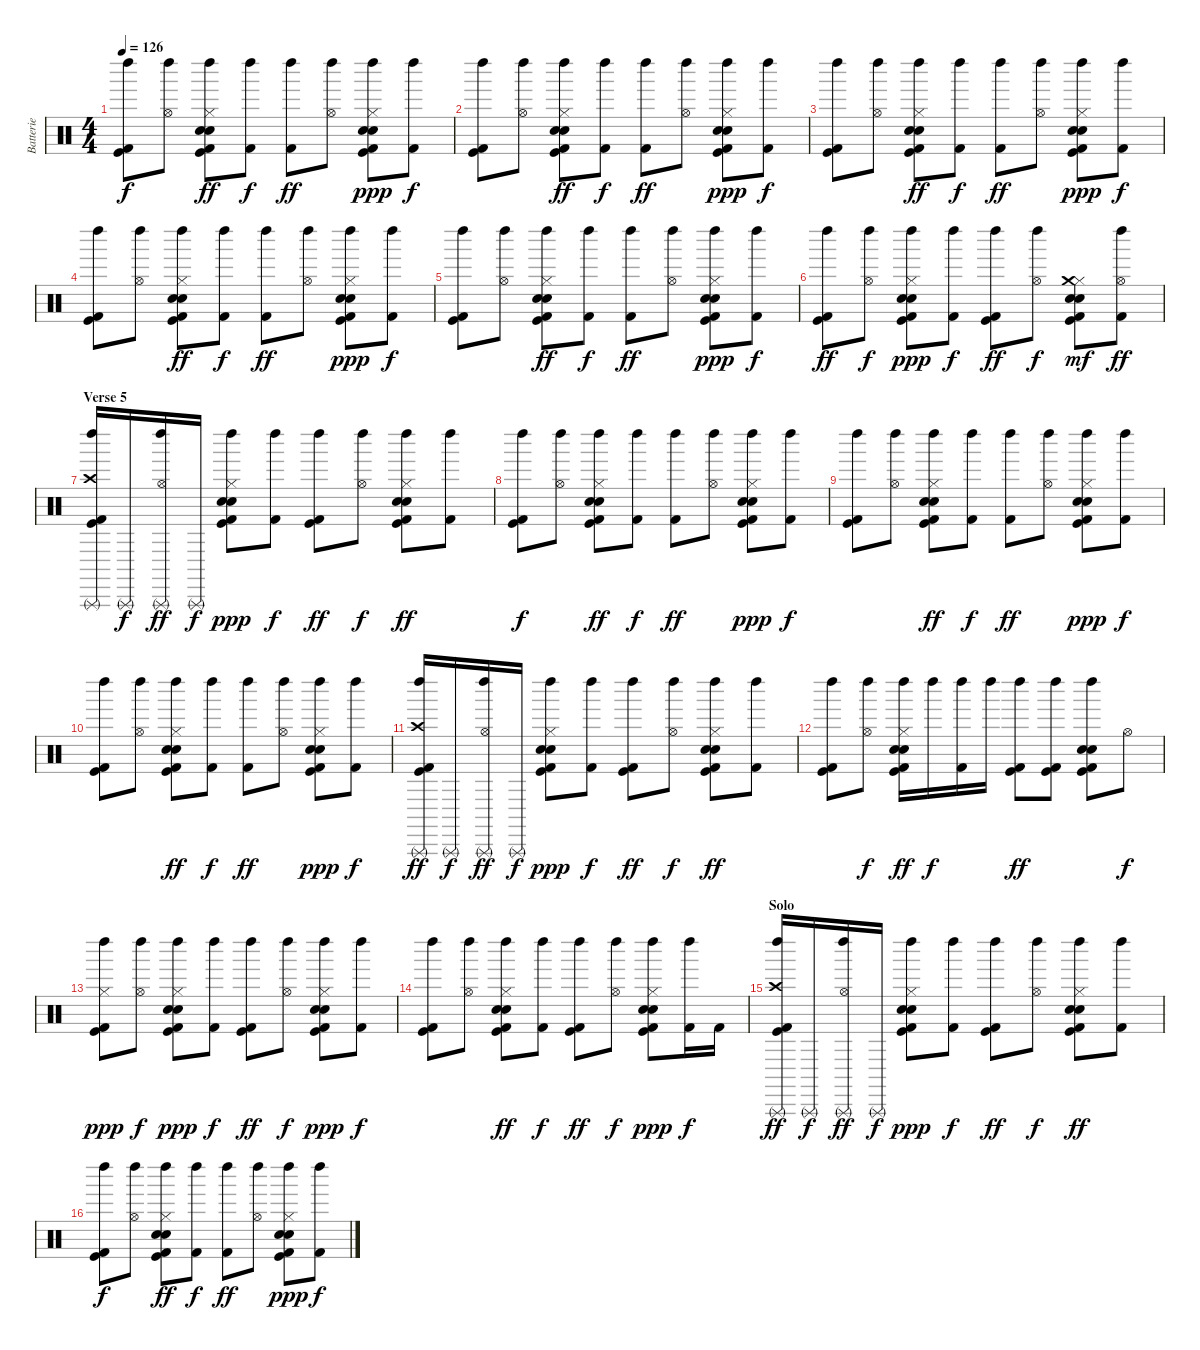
\track ("Batterie" "Batterie") {instrument percussion}
\staff {score}
\articulation defaults
\ts (4 4)
\tempo 126
\clef neutral
\ks c
("Left Maraca (hit)" "Kick (hit)" "Kick (hit) 2").8{dy f} ("Left Maraca (hit)" "Hi-Hat (open)").8 ("Left Maraca (hit)" "Hi-Hat (closed)" "Electric Snare (hit)" "Hand Clap (hit)" "Kick (hit)" "Kick (hit) 2").8{dy ff} ("Left Maraca (hit)" "Kick (hit) 2").8{dy f} ("Left Maraca (hit)" "Kick (hit) 2").8{dy ff} ("Left Maraca (hit)" "Hi-Hat (open)").8 ("Left Maraca (hit)" "Hi-Hat (closed)" "Electric Snare (hit)" "Hand Clap (hit)" "Kick (hit)" "Kick (hit) 2").8{dy ppp} ("Left Maraca (hit)" "Kick (hit) 2").8{dy f} |
("Left Maraca (hit)" "Kick (hit)" "Kick (hit) 2").8 ("Left Maraca (hit)" "Hi-Hat (open)").8 ("Left Maraca (hit)" "Hi-Hat (closed)" "Electric Snare (hit)" "Hand Clap (hit)" "Kick (hit)" "Kick (hit) 2").8{dy ff} ("Left Maraca (hit)" "Kick (hit) 2").8{dy f} ("Left Maraca (hit)" "Kick (hit) 2").8{dy ff} ("Left Maraca (hit)" "Hi-Hat (open)").8 ("Left Maraca (hit)" "Hi-Hat (closed)" "Electric Snare (hit)" "Hand Clap (hit)" "Kick (hit)" "Kick (hit) 2").8{dy ppp} ("Left Maraca (hit)" "Kick (hit) 2").8{dy f} |
("Left Maraca (hit)" "Kick (hit)" "Kick (hit) 2").8 ("Left Maraca (hit)" "Hi-Hat (open)").8 ("Left Maraca (hit)" "Hi-Hat (closed)" "Electric Snare (hit)" "Hand Clap (hit)" "Kick (hit)" "Kick (hit) 2").8{dy ff} ("Left Maraca (hit)" "Kick (hit) 2").8{dy f} ("Left Maraca (hit)" "Kick (hit) 2").8{dy ff} ("Left Maraca (hit)" "Hi-Hat (open)").8 ("Left Maraca (hit)" "Hi-Hat (closed)" "Electric Snare (hit)" "Hand Clap (hit)" "Kick (hit)" "Kick (hit) 2").8{dy ppp} ("Left Maraca (hit)" "Kick (hit) 2").8{dy f} |
("Left Maraca (hit)" "Kick (hit)" "Kick (hit) 2").8 ("Left Maraca (hit)" "Hi-Hat (open)").8 ("Left Maraca (hit)" "Hi-Hat (closed)" "Electric Snare (hit)" "Hand Clap (hit)" "Kick (hit)" "Kick (hit) 2").8{dy ff} ("Left Maraca (hit)" "Kick (hit) 2").8{dy f} ("Left Maraca (hit)" "Kick (hit) 2").8{dy ff} ("Left Maraca (hit)" "Hi-Hat (open)").8 ("Left Maraca (hit)" "Hi-Hat (closed)" "Electric Snare (hit)" "Hand Clap (hit)" "Kick (hit)" "Kick (hit) 2").8{dy ppp} ("Left Maraca (hit)" "Kick (hit) 2").8{dy f} |
("Left Maraca (hit)" "Kick (hit)" "Kick (hit) 2").8 ("Left Maraca (hit)" "Hi-Hat (open)").8 ("Left Maraca (hit)" "Hi-Hat (closed)" "Electric Snare (hit)" "Hand Clap (hit)" "Kick (hit)" "Kick (hit) 2").8{dy ff} ("Left Maraca (hit)" "Kick (hit) 2").8{dy f} ("Left Maraca (hit)" "Kick (hit) 2").8{dy ff} ("Left Maraca (hit)" "Hi-Hat (open)").8 ("Left Maraca (hit)" "Hi-Hat (closed)" "Electric Snare (hit)" "Hand Clap (hit)" "Kick (hit)" "Kick (hit) 2").8{dy ppp} ("Left Maraca (hit)" "Kick (hit) 2").8{dy f} |
("Kick (hit)" "Kick (hit) 2" "Left Maraca (hit)").8{dy ff} ("Hi-Hat (open)" "Left Maraca (hit)").8{dy f} ("Kick (hit)" "Kick (hit) 2" "Hand Clap (hit)" "Electric Snare (hit)" "Hi-Hat (closed)" "Left Maraca (hit)").8{dy ppp} ("Kick (hit) 2" "Left Maraca (hit)").8{dy f} ("Kick (hit)" "Kick (hit) 2" "Left Maraca (hit)").8{dy ff} ("Hi-Hat (open)" "Left Maraca (hit)").8{dy f} ("Kick (hit)" "Kick (hit) 2" "Hand Clap (hit)" "Electric Snare (hit)" "Hi-Hat (closed)" "Crash medium (hit)").8{dy mf} ("Hi-Hat (open)" "Kick (hit) 2" "Left Maraca (hit)").8{dy ff} |
\section ("" "Verse 5")
("Triangle (rnute)" "Left Maraca (hit)" "Crash high (hit)" "Kick (hit)" "Kick (hit) 2").16 "Triangle (rnute)".16{dy f} ("Triangle (rnute)" "Left Maraca (hit)" "Hi-Hat (open)").16{dy ff} "Triangle (rnute)".16{dy f} ("Left Maraca (hit)" "Hi-Hat (closed)" "Electric Snare (hit)" "Hand Clap (hit)" "Kick (hit)" "Kick (hit) 2").8{dy ppp} ("Left Maraca (hit)" "Kick (hit) 2").8{dy f} ("Left Maraca (hit)" "Kick (hit)" "Kick (hit) 2").8{dy ff} ("Left Maraca (hit)" "Hi-Hat (open)").8{dy f} ("Left Maraca (hit)" "Hi-Hat (closed)" "Electric Snare (hit)" "Hand Clap (hit)" "Kick (hit)" "Kick (hit) 2").8{dy ff} ("Left Maraca (hit)" "Kick (hit) 2").8 |
("Left Maraca (hit)" "Kick (hit)" "Kick (hit) 2").8{dy f} ("Left Maraca (hit)" "Hi-Hat (open)").8 ("Left Maraca (hit)" "Hi-Hat (closed)" "Electric Snare (hit)" "Hand Clap (hit)" "Kick (hit)" "Kick (hit) 2").8{dy ff} ("Left Maraca (hit)" "Kick (hit) 2").8{dy f} ("Left Maraca (hit)" "Kick (hit) 2").8{dy ff} ("Left Maraca (hit)" "Hi-Hat (open)").8 ("Left Maraca (hit)" "Hi-Hat (closed)" "Electric Snare (hit)" "Hand Clap (hit)" "Kick (hit)" "Kick (hit) 2").8{dy ppp} ("Left Maraca (hit)" "Kick (hit) 2").8{dy f} |
("Left Maraca (hit)" "Kick (hit)" "Kick (hit) 2").8 ("Left Maraca (hit)" "Hi-Hat (open)").8 ("Left Maraca (hit)" "Hi-Hat (closed)" "Electric Snare (hit)" "Hand Clap (hit)" "Kick (hit)" "Kick (hit) 2").8{dy ff} ("Left Maraca (hit)" "Kick (hit) 2").8{dy f} ("Left Maraca (hit)" "Kick (hit) 2").8{dy ff} ("Left Maraca (hit)" "Hi-Hat (open)").8 ("Left Maraca (hit)" "Hi-Hat (closed)" "Electric Snare (hit)" "Hand Clap (hit)" "Kick (hit)" "Kick (hit) 2").8{dy ppp} ("Left Maraca (hit)" "Kick (hit) 2").8{dy f} |
("Left Maraca (hit)" "Kick (hit)" "Kick (hit) 2").8 ("Left Maraca (hit)" "Hi-Hat (open)").8 ("Left Maraca (hit)" "Hi-Hat (closed)" "Electric Snare (hit)" "Hand Clap (hit)" "Kick (hit)" "Kick (hit) 2").8{dy ff} ("Left Maraca (hit)" "Kick (hit) 2").8{dy f} ("Left Maraca (hit)" "Kick (hit) 2").8{dy ff} ("Left Maraca (hit)" "Hi-Hat (open)").8 ("Left Maraca (hit)" "Hi-Hat (closed)" "Electric Snare (hit)" "Hand Clap (hit)" "Kick (hit)" "Kick (hit) 2").8{dy ppp} ("Left Maraca (hit)" "Kick (hit) 2").8{dy f} |
("Triangle (rnute)" "Left Maraca (hit)" "Crash high (hit)" "Kick (hit)" "Kick (hit) 2").16{dy ff} "Triangle (rnute)".16{dy f} ("Triangle (rnute)" "Left Maraca (hit)" "Hi-Hat (open)").16{dy ff} "Triangle (rnute)".16{dy f} ("Left Maraca (hit)" "Hi-Hat (closed)" "Electric Snare (hit)" "Hand Clap (hit)" "Kick (hit)" "Kick (hit) 2").8{dy ppp} ("Left Maraca (hit)" "Kick (hit) 2").8{dy f} ("Left Maraca (hit)" "Kick (hit)" "Kick (hit) 2").8{dy ff} ("Left Maraca (hit)" "Hi-Hat (open)").8{dy f} ("Left Maraca (hit)" "Hi-Hat (closed)" "Electric Snare (hit)" "Hand Clap (hit)" "Kick (hit)" "Kick (hit) 2").8{dy ff} ("Left Maraca (hit)" "Kick (hit) 2").8 |
("Left Maraca (hit)" "Kick (hit)" "Kick (hit) 2").8 ("Left Maraca (hit)" "Hi-Hat (open)").8{dy f} ("Left Maraca (hit)" "Hi-Hat (closed)" "Hand Clap (hit)" "Electric Snare (hit)" "Kick (hit)" "Kick (hit) 2").16{dy ff} "Left Maraca (hit)".16{dy f} ("Left Maraca (hit)" "Kick (hit) 2").16 "Left Maraca (hit)".16 ("Left Maraca (hit)" "Kick (hit)" "Kick (hit) 2").8{dy ff} ("Left Maraca (hit)" "Kick (hit)" "Kick (hit) 2").8 ("Left Maraca (hit)" "Hand Clap (hit)" "Electric Snare (hit)" "Kick (hit)" "Kick (hit) 2").8 "Hi-Hat (open)".8{dy f} |
("Left Maraca (hit)" "Hi-Hat (closed)" "Kick (hit)" "Kick (hit) 2").8{dy ppp} ("Left Maraca (hit)" "Hi-Hat (open)").8{dy f} ("Left Maraca (hit)" "Hi-Hat (closed)" "Hand Clap (hit)" "Electric Snare (hit)" "Kick (hit)" "Kick (hit) 2").8{dy ppp} ("Left Maraca (hit)" "Kick (hit) 2").8{dy f} ("Left Maraca (hit)" "Kick (hit)" "Kick (hit) 2").8{dy ff} ("Left Maraca (hit)" "Hi-Hat (open)").8{dy f} ("Left Maraca (hit)" "Hi-Hat (closed)" "Hand Clap (hit)" "Electric Snare (hit)" "Kick (hit)" "Kick (hit) 2").8{dy ppp} ("Left Maraca (hit)" "Kick (hit) 2").8{dy f} |
("Left Maraca (hit)" "Kick (hit)" "Kick (hit) 2").8 ("Left Maraca (hit)" "Hi-Hat (open)").8 ("Left Maraca (hit)" "Hi-Hat (closed)" "Hand Clap (hit)" "Electric Snare (hit)" "Kick (hit)" "Kick (hit) 2").8{dy ff} ("Left Maraca (hit)" "Kick (hit) 2").8{dy f} ("Left Maraca (hit)" "Kick (hit)" "Kick (hit) 2").8{dy ff} ("Left Maraca (hit)" "Hi-Hat (open)").8{dy f} ("Left Maraca (hit)" "Hi-Hat (closed)" "Hand Clap (hit)" "Electric Snare (hit)" "Kick (hit)" "Kick (hit) 2").8{dy ppp} ("Left Maraca (hit)" "Kick (hit) 2").16{dy f} "Kick (hit) 2".16 |
\section ("" "Solo")
("Triangle (rnute)" "Left Maraca (hit)" "Crash high (hit)" "Kick (hit)" "Kick (hit) 2").16{dy ff} "Triangle (rnute)".16{dy f} ("Triangle (rnute)" "Left Maraca (hit)" "Hi-Hat (open)").16{dy ff} "Triangle (rnute)".16{dy f} ("Left Maraca (hit)" "Hi-Hat (closed)" "Hand Clap (hit)" "Electric Snare (hit)" "Kick (hit)" "Kick (hit) 2").8{dy ppp} ("Left Maraca (hit)" "Kick (hit) 2").8{dy f} ("Left Maraca (hit)" "Kick (hit)" "Kick (hit) 2").8{dy ff} ("Left Maraca (hit)" "Hi-Hat (open)").8{dy f} ("Left Maraca (hit)" "Hi-Hat (closed)" "Hand Clap (hit)" "Electric Snare (hit)" "Kick (hit)" "Kick (hit) 2").8{dy ff} ("Left Maraca (hit)" "Kick (hit) 2").8 |
("Left Maraca (hit)" "Kick (hit)" "Kick (hit) 2").8{dy f} ("Left Maraca (hit)" "Hi-Hat (open)").8 ("Left Maraca (hit)" "Hi-Hat (closed)" "Electric Snare (hit)" "Hand Clap (hit)" "Kick (hit)" "Kick (hit) 2").8{dy ff} ("Left Maraca (hit)" "Kick (hit) 2").8{dy f} ("Left Maraca (hit)" "Kick (hit) 2").8{dy ff} ("Left Maraca (hit)" "Hi-Hat (open)").8 ("Left Maraca (hit)" "Hi-Hat (closed)" "Electric Snare (hit)" "Hand Clap (hit)" "Kick (hit)" "Kick (hit) 2").8{dy ppp} ("Left Maraca (hit)" "Kick (hit) 2").8{dy f}
